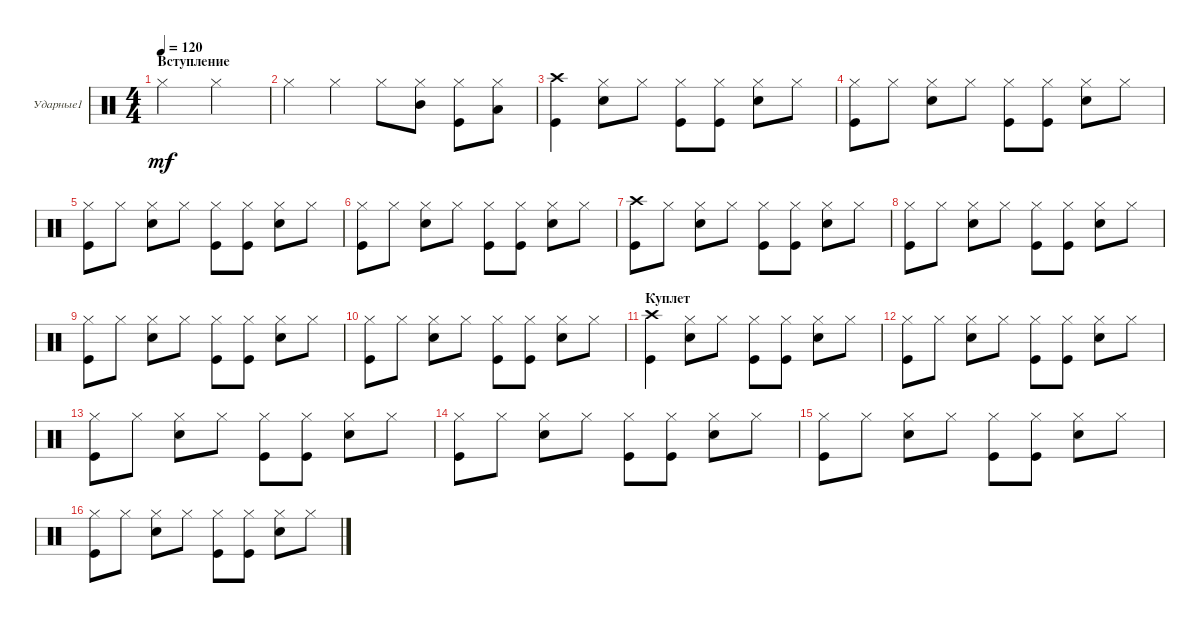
\defaultSystemsLayout 4
\bracketExtendMode groupsimilarinstruments
\firstSystemTrackNameOrientation horizontal
\otherSystemsTrackNameOrientation horizontal
\track ("Е.Кулаков" "Ударные1") {instrument percussion}
\staff {score}
\articulation defaults
\ts (4 4)
\section ("" "Вступление")
\tempo 120
\clef neutral
\ks c "Hi-Hat (closed)".2{dy mf} "Hi-Hat (closed)".2
|
"Hi-Hat (closed)".4 "Hi-Hat (closed)".4 "Hi-Hat (closed)".8 ("Hi-Hat (closed)" "Mid Tom (hit)").8 ("Hi-Hat (closed)" "Kick (hit)").8 ("Hi-Hat (closed)" "Low Tom (hit)").8 |
("Crash high (hit)" "Kick (hit)").4 ("Hi-Hat (closed)" "Snare (hit) 2").8 "Hi-Hat (closed)".8 ("Hi-Hat (closed)" "Kick (hit)").8 ("Hi-Hat (closed)" "Kick (hit)").8 ("Hi-Hat (closed)" "Snare (hit) 2").8 "Hi-Hat (closed)".8 |
("Hi-Hat (closed)" "Kick (hit)").8 "Hi-Hat (closed)".8 ("Hi-Hat (closed)" "Snare (hit) 2").8 "Hi-Hat (closed)".8 ("Hi-Hat (closed)" "Kick (hit)").8 ("Hi-Hat (closed)" "Kick (hit)").8 ("Hi-Hat (closed)" "Snare (hit) 2").8 "Hi-Hat (closed)".8 |
("Hi-Hat (closed)" "Kick (hit)").8 "Hi-Hat (closed)".8 ("Hi-Hat (closed)" "Snare (hit) 2").8 "Hi-Hat (closed)".8 ("Hi-Hat (closed)" "Kick (hit)").8 ("Hi-Hat (closed)" "Kick (hit)").8 ("Hi-Hat (closed)" "Snare (hit) 2").8 "Hi-Hat (closed)".8 |
("Hi-Hat (closed)" "Kick (hit)").8 "Hi-Hat (closed)".8 ("Hi-Hat (closed)" "Snare (hit) 2").8 "Hi-Hat (closed)".8 ("Hi-Hat (closed)" "Kick (hit)").8 ("Hi-Hat (closed)" "Kick (hit)").8 ("Hi-Hat (closed)" "Snare (hit) 2").8 "Hi-Hat (closed)".8 |
("Kick (hit)" "Crash high (hit)").8 "Hi-Hat (closed)".8 ("Hi-Hat (closed)" "Snare (hit) 2").8 "Hi-Hat (closed)".8 ("Hi-Hat (closed)" "Kick (hit)").8 ("Hi-Hat (closed)" "Kick (hit)").8 ("Hi-Hat (closed)" "Snare (hit) 2").8 "Hi-Hat (closed)".8 |
("Hi-Hat (closed)" "Kick (hit)").8 "Hi-Hat (closed)".8 ("Hi-Hat (closed)" "Snare (hit) 2").8 "Hi-Hat (closed)".8 ("Hi-Hat (closed)" "Kick (hit)").8 ("Hi-Hat (closed)" "Kick (hit)").8 ("Hi-Hat (closed)" "Snare (hit) 2").8 "Hi-Hat (closed)".8 |
("Hi-Hat (closed)" "Kick (hit)").8 "Hi-Hat (closed)".8 ("Hi-Hat (closed)" "Snare (hit) 2").8 "Hi-Hat (closed)".8 ("Hi-Hat (closed)" "Kick (hit)").8 ("Hi-Hat (closed)" "Kick (hit)").8 ("Hi-Hat (closed)" "Snare (hit) 2").8 "Hi-Hat (closed)".8 |
("Hi-Hat (closed)" "Kick (hit)").8 "Hi-Hat (closed)".8 ("Hi-Hat (closed)" "Snare (hit) 2").8 "Hi-Hat (closed)".8 ("Hi-Hat (closed)" "Kick (hit)").8 ("Hi-Hat (closed)" "Kick (hit)").8 ("Hi-Hat (closed)" "Snare (hit) 2").8 "Hi-Hat (closed)".8 |
\section ("" "Куплет")
("Crash high (hit)" "Kick (hit)").4 ("Hi-Hat (closed)" "Snare (hit) 2").8 "Hi-Hat (closed)".8 ("Hi-Hat (closed)" "Kick (hit)").8 ("Hi-Hat (closed)" "Kick (hit)").8 ("Hi-Hat (closed)" "Snare (hit) 2").8 "Hi-Hat (closed)".8 |
("Hi-Hat (closed)" "Kick (hit)").8 "Hi-Hat (closed)".8 ("Hi-Hat (closed)" "Snare (hit) 2").8 "Hi-Hat (closed)".8 ("Hi-Hat (closed)" "Kick (hit)").8 ("Hi-Hat (closed)" "Kick (hit)").8 ("Hi-Hat (closed)" "Snare (hit) 2").8 "Hi-Hat (closed)".8 |
("Hi-Hat (closed)" "Kick (hit)").8 "Hi-Hat (closed)".8 ("Hi-Hat (closed)" "Snare (hit) 2").8 "Hi-Hat (closed)".8 ("Hi-Hat (closed)" "Kick (hit)").8 ("Hi-Hat (closed)" "Kick (hit)").8 ("Hi-Hat (closed)" "Snare (hit) 2").8 "Hi-Hat (closed)".8 |
("Hi-Hat (closed)" "Kick (hit)").8 "Hi-Hat (closed)".8 ("Hi-Hat (closed)" "Snare (hit) 2").8 "Hi-Hat (closed)".8 ("Hi-Hat (closed)" "Kick (hit)").8 ("Hi-Hat (closed)" "Kick (hit)").8 ("Hi-Hat (closed)" "Snare (hit) 2").8 "Hi-Hat (closed)".8 |
("Hi-Hat (closed)" "Kick (hit)").8 "Hi-Hat (closed)".8 ("Hi-Hat (closed)" "Snare (hit) 2").8 "Hi-Hat (closed)".8 ("Hi-Hat (closed)" "Kick (hit)").8 ("Hi-Hat (closed)" "Kick (hit)").8 ("Hi-Hat (closed)" "Snare (hit) 2").8 "Hi-Hat (closed)".8 |
("Hi-Hat (closed)" "Kick (hit)").8 "Hi-Hat (closed)".8 ("Hi-Hat (closed)" "Snare (hit) 2").8 "Hi-Hat (closed)".8 ("Hi-Hat (closed)" "Kick (hit)").8 ("Hi-Hat (closed)" "Kick (hit)").8 ("Hi-Hat (closed)" "Snare (hit) 2").8 "Hi-Hat (closed)".8
